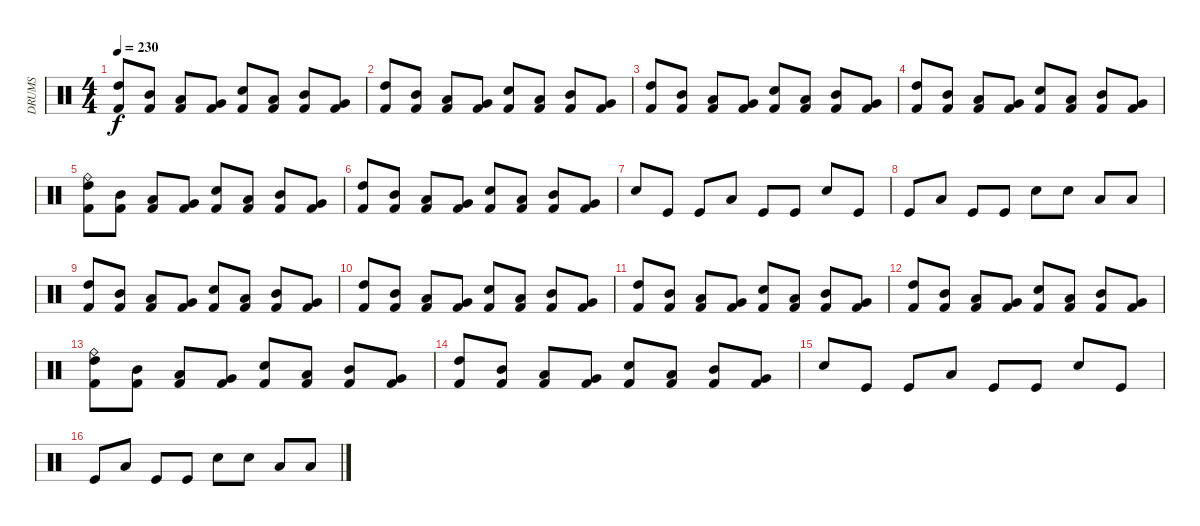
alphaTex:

\track ("DRUMS" "DRUMS") {instrument percussion}
\staff {score}
\articulation defaults
\ts (4 4)
\tempo 230
\clef neutral
\ks c
("High Tom (hit)" "Kick (hit) 2").8{dy f} ("Mid Tom (hit)" "Kick (hit) 2").8 ("Low Tom (hit)" "Kick (hit) 2").8 ("Very Low Tom (hit)" "Kick (hit) 2").8 ("Snare (hit) 2" "Kick (hit) 2").8 ("Low Tom (hit)" "Kick (hit) 2").8 ("Mid Tom (hit)" "Kick (hit) 2").8 ("Very Low Tom (hit)" "Kick (hit) 2").8 |
("High Tom (hit)" "Kick (hit) 2").8 ("Mid Tom (hit)" "Kick (hit) 2").8 ("Low Tom (hit)" "Kick (hit) 2").8 ("Very Low Tom (hit)" "Kick (hit) 2").8 ("Snare (hit) 2" "Kick (hit) 2").8 ("Low Tom (hit)" "Kick (hit) 2").8 ("Mid Tom (hit)" "Kick (hit) 2").8 ("Very Low Tom (hit)" "Kick (hit) 2").8 |
("High Tom (hit)" "Kick (hit) 2").8 ("Mid Tom (hit)" "Kick (hit) 2").8 ("Low Tom (hit)" "Kick (hit) 2").8 ("Very Low Tom (hit)" "Kick (hit) 2").8 ("Snare (hit) 2" "Kick (hit) 2").8 ("Low Tom (hit)" "Kick (hit) 2").8 ("Mid Tom (hit)" "Kick (hit) 2").8 ("Very Low Tom (hit)" "Kick (hit) 2").8 |
("High Tom (hit)" "Kick (hit) 2").8 ("Mid Tom (hit)" "Kick (hit) 2").8 ("Low Tom (hit)" "Kick (hit) 2").8 ("Very Low Tom (hit)" "Kick (hit) 2").8 ("Snare (hit) 2" "Kick (hit) 2").8 ("Low Tom (hit)" "Kick (hit) 2").8 ("Mid Tom (hit)" "Kick (hit) 2").8 ("Very Low Tom (hit)" "Kick (hit) 2").8 |
("Ride (bell)" "High Tom (hit)" "Kick (hit) 2").8 ("Mid Tom (hit)" "Kick (hit) 2").8 ("Low Tom (hit)" "Kick (hit) 2").8 ("Very Low Tom (hit)" "Kick (hit) 2").8 ("Snare (hit) 2" "Kick (hit) 2").8 ("Low Tom (hit)" "Kick (hit) 2").8 ("Mid Tom (hit)" "Kick (hit) 2").8 ("Very Low Tom (hit)" "Kick (hit) 2").8 |
("High Tom (hit)" "Kick (hit) 2").8 ("Mid Tom (hit)" "Kick (hit) 2").8 ("Low Tom (hit)" "Kick (hit) 2").8 ("Very Low Tom (hit)" "Kick (hit) 2").8 ("Snare (hit) 2" "Kick (hit) 2").8 ("Low Tom (hit)" "Kick (hit) 2").8 ("Mid Tom (hit)" "Kick (hit) 2").8 ("Very Low Tom (hit)" "Kick (hit) 2").8 |
"Snare (hit) 2".8 "Kick (hit)".8 "Kick (hit)".8 "Low Tom (hit)".8 "Kick (hit)".8 "Kick (hit)".8 "Snare (hit) 2".8 "Kick (hit)".8 |
"Kick (hit)".8 "Low Tom (hit)".8 "Kick (hit)".8 "Kick (hit)".8 "Electric Snare (hit)".8 "Electric Snare (hit)".8 "Low Tom (hit)".8 "Low Tom (hit)".8 |
("High Tom (hit)" "Kick (hit) 2").8 ("Mid Tom (hit)" "Kick (hit) 2").8 ("Low Tom (hit)" "Kick (hit) 2").8 ("Very Low Tom (hit)" "Kick (hit) 2").8 ("Snare (hit) 2" "Kick (hit) 2").8 ("Low Tom (hit)" "Kick (hit) 2").8 ("Mid Tom (hit)" "Kick (hit) 2").8 ("Very Low Tom (hit)" "Kick (hit) 2").8 |
("High Tom (hit)" "Kick (hit) 2").8 ("Mid Tom (hit)" "Kick (hit) 2").8 ("Low Tom (hit)" "Kick (hit) 2").8 ("Very Low Tom (hit)" "Kick (hit) 2").8 ("Snare (hit) 2" "Kick (hit) 2").8 ("Low Tom (hit)" "Kick (hit) 2").8 ("Mid Tom (hit)" "Kick (hit) 2").8 ("Very Low Tom (hit)" "Kick (hit) 2").8 |
("High Tom (hit)" "Kick (hit) 2").8 ("Mid Tom (hit)" "Kick (hit) 2").8 ("Low Tom (hit)" "Kick (hit) 2").8 ("Very Low Tom (hit)" "Kick (hit) 2").8 ("Snare (hit) 2" "Kick (hit) 2").8 ("Low Tom (hit)" "Kick (hit) 2").8 ("Mid Tom (hit)" "Kick (hit) 2").8 ("Very Low Tom (hit)" "Kick (hit) 2").8 |
("High Tom (hit)" "Kick (hit) 2").8 ("Mid Tom (hit)" "Kick (hit) 2").8 ("Low Tom (hit)" "Kick (hit) 2").8 ("Very Low Tom (hit)" "Kick (hit) 2").8 ("Snare (hit) 2" "Kick (hit) 2").8 ("Low Tom (hit)" "Kick (hit) 2").8 ("Mid Tom (hit)" "Kick (hit) 2").8 ("Very Low Tom (hit)" "Kick (hit) 2").8 |
("Ride (bell)" "High Tom (hit)" "Kick (hit) 2").8 ("Mid Tom (hit)" "Kick (hit) 2").8 ("Low Tom (hit)" "Kick (hit) 2").8 ("Very Low Tom (hit)" "Kick (hit) 2").8 ("Snare (hit) 2" "Kick (hit) 2").8 ("Low Tom (hit)" "Kick (hit) 2").8 ("Mid Tom (hit)" "Kick (hit) 2").8 ("Very Low Tom (hit)" "Kick (hit) 2").8 |
("High Tom (hit)" "Kick (hit) 2").8 ("Mid Tom (hit)" "Kick (hit) 2").8 ("Low Tom (hit)" "Kick (hit) 2").8 ("Very Low Tom (hit)" "Kick (hit) 2").8 ("Snare (hit) 2" "Kick (hit) 2").8 ("Low Tom (hit)" "Kick (hit) 2").8 ("Mid Tom (hit)" "Kick (hit) 2").8 ("Very Low Tom (hit)" "Kick (hit) 2").8 |
"Snare (hit) 2".8 "Kick (hit)".8 "Kick (hit)".8 "Low Tom (hit)".8 "Kick (hit)".8 "Kick (hit)".8 "Snare (hit) 2".8 "Kick (hit)".8 |
"Kick (hit)".8 "Low Tom (hit)".8 "Kick (hit)".8 "Kick (hit)".8 "Electric Snare (hit)".8 "Electric Snare (hit)".8 "Low Tom (hit)".8 "Low Tom (hit)".8
